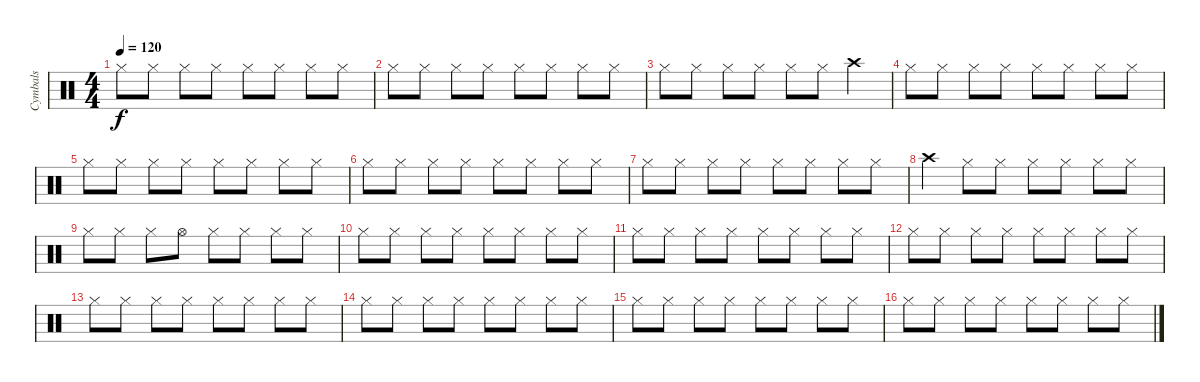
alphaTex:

\track ("Cymbals" "Cymbals") {instrument percussion}
\staff {score}
\articulation defaults
\ts (4 4)
\tempo 120
\clef neutral
\ks c "Hi-Hat (closed)".8{dy f} "Hi-Hat (closed)".8 "Hi-Hat (closed)".8 "Hi-Hat (closed)".8 "Hi-Hat (closed)".8 "Hi-Hat (closed)".8 "Hi-Hat (closed)".8 "Hi-Hat (closed)".8
|
"Hi-Hat (closed)".8 "Hi-Hat (closed)".8 "Hi-Hat (closed)".8 "Hi-Hat (closed)".8 "Hi-Hat (closed)".8 "Hi-Hat (closed)".8 "Hi-Hat (closed)".8 "Hi-Hat (closed)".8 |
"Hi-Hat (closed)".8 "Hi-Hat (closed)".8 "Hi-Hat (closed)".8 "Hi-Hat (closed)".8 "Hi-Hat (closed)".8 "Hi-Hat (closed)".8 "Crash high (hit)".4 |
"Hi-Hat (closed)".8 "Hi-Hat (closed)".8 "Hi-Hat (closed)".8 "Hi-Hat (closed)".8 "Hi-Hat (closed)".8 "Hi-Hat (closed)".8 "Hi-Hat (closed)".8 "Hi-Hat (closed)".8 |
"Hi-Hat (closed)".8 "Hi-Hat (closed)".8 "Hi-Hat (closed)".8 "Hi-Hat (closed)".8 "Hi-Hat (closed)".8 "Hi-Hat (closed)".8 "Hi-Hat (closed)".8 "Hi-Hat (closed)".8 |
"Hi-Hat (closed)".8 "Hi-Hat (closed)".8 "Hi-Hat (closed)".8 "Hi-Hat (closed)".8 "Hi-Hat (closed)".8 "Hi-Hat (closed)".8 "Hi-Hat (closed)".8 "Hi-Hat (closed)".8 |
"Hi-Hat (closed)".8 "Hi-Hat (closed)".8 "Hi-Hat (closed)".8 "Hi-Hat (closed)".8 "Hi-Hat (closed)".8 "Hi-Hat (closed)".8 "Hi-Hat (closed)".8 "Hi-Hat (closed)".8 |
"Crash high (hit)".4 "Hi-Hat (closed)".8 "Hi-Hat (closed)".8 "Hi-Hat (closed)".8 "Hi-Hat (closed)".8 "Hi-Hat (closed)".8 "Hi-Hat (closed)".8 |
"Hi-Hat (closed)".8 "Hi-Hat (closed)".8 "Hi-Hat (closed)".8 "Hi-Hat (open)".8 "Hi-Hat (closed)".8 "Hi-Hat (closed)".8 "Hi-Hat (closed)".8 "Hi-Hat (closed)".8 |
"Hi-Hat (closed)".8 "Hi-Hat (closed)".8 "Hi-Hat (closed)".8 "Hi-Hat (closed)".8 "Hi-Hat (closed)".8 "Hi-Hat (closed)".8 "Hi-Hat (closed)".8 "Hi-Hat (closed)".8 |
"Hi-Hat (closed)".8 "Hi-Hat (closed)".8 "Hi-Hat (closed)".8 "Hi-Hat (closed)".8 "Hi-Hat (closed)".8 "Hi-Hat (closed)".8 "Hi-Hat (closed)".8 "Hi-Hat (closed)".8 |
"Hi-Hat (closed)".8 "Hi-Hat (closed)".8 "Hi-Hat (closed)".8 "Hi-Hat (closed)".8 "Hi-Hat (closed)".8 "Hi-Hat (closed)".8 "Hi-Hat (closed)".8 "Hi-Hat (closed)".8 |
"Hi-Hat (closed)".8 "Hi-Hat (closed)".8 "Hi-Hat (closed)".8 "Hi-Hat (closed)".8 "Hi-Hat (closed)".8 "Hi-Hat (closed)".8 "Hi-Hat (closed)".8 "Hi-Hat (closed)".8 |
"Hi-Hat (closed)".8 "Hi-Hat (closed)".8 "Hi-Hat (closed)".8 "Hi-Hat (closed)".8 "Hi-Hat (closed)".8 "Hi-Hat (closed)".8 "Hi-Hat (closed)".8 "Hi-Hat (closed)".8 |
"Hi-Hat (closed)".8 "Hi-Hat (closed)".8 "Hi-Hat (closed)".8 "Hi-Hat (closed)".8 "Hi-Hat (closed)".8 "Hi-Hat (closed)".8 "Hi-Hat (closed)".8 "Hi-Hat (closed)".8 |
"Hi-Hat (closed)".8 "Hi-Hat (closed)".8 "Hi-Hat (closed)".8 "Hi-Hat (closed)".8 "Hi-Hat (closed)".8 "Hi-Hat (closed)".8 "Hi-Hat (closed)".8 "Hi-Hat (closed)".8
